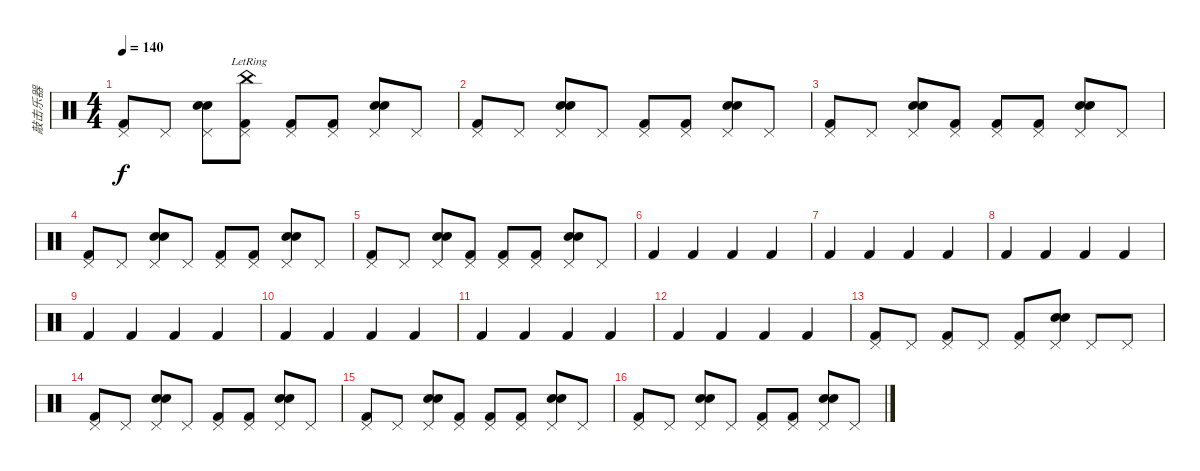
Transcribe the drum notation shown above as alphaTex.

\track ("敲击乐器" "敲击乐器") {instrument percussion}
\staff {score}
\articulation defaults
\ts (4 4)
\tempo 140
\clef neutral
\ks c
("Kick (hit) 2" "Pedal Hi-Hat (hit)").8{dy f} "Pedal Hi-Hat (hit)".8 ("Snare (hit) 2" "Electric Snare (hit)" "Pedal Hi-Hat (hit)").8 ("Kick (hit) 2" "China (hit)"{lr} "Pedal Hi-Hat (hit)").8 ("Kick (hit) 2" "Pedal Hi-Hat (hit)").8 ("Kick (hit) 2" "Pedal Hi-Hat (hit)").8 ("Snare (hit) 2" "Electric Snare (hit)" "Pedal Hi-Hat (hit)").8 "Pedal Hi-Hat (hit)".8 |
("Kick (hit) 2" "Pedal Hi-Hat (hit)").8 "Pedal Hi-Hat (hit)".8 ("Snare (hit) 2" "Electric Snare (hit)" "Pedal Hi-Hat (hit)").8 "Pedal Hi-Hat (hit)".8 ("Kick (hit) 2" "Pedal Hi-Hat (hit)").8 ("Kick (hit) 2" "Pedal Hi-Hat (hit)").8 ("Snare (hit) 2" "Electric Snare (hit)" "Pedal Hi-Hat (hit)").8 "Pedal Hi-Hat (hit)".8 |
("Kick (hit) 2" "Pedal Hi-Hat (hit)").8 "Pedal Hi-Hat (hit)".8 ("Snare (hit) 2" "Electric Snare (hit)" "Pedal Hi-Hat (hit)").8 ("Kick (hit) 2" "Pedal Hi-Hat (hit)").8 ("Kick (hit) 2" "Pedal Hi-Hat (hit)").8 ("Kick (hit) 2" "Pedal Hi-Hat (hit)").8 ("Snare (hit) 2" "Electric Snare (hit)" "Pedal Hi-Hat (hit)").8 "Pedal Hi-Hat (hit)".8 |
("Kick (hit) 2" "Pedal Hi-Hat (hit)").8 "Pedal Hi-Hat (hit)".8 ("Snare (hit) 2" "Electric Snare (hit)" "Pedal Hi-Hat (hit)").8 "Pedal Hi-Hat (hit)".8 ("Kick (hit) 2" "Pedal Hi-Hat (hit)").8 ("Kick (hit) 2" "Pedal Hi-Hat (hit)").8 ("Snare (hit) 2" "Electric Snare (hit)" "Pedal Hi-Hat (hit)").8 "Pedal Hi-Hat (hit)".8 |
("Kick (hit) 2" "Pedal Hi-Hat (hit)").8 "Pedal Hi-Hat (hit)".8 ("Snare (hit) 2" "Electric Snare (hit)" "Pedal Hi-Hat (hit)").8 ("Kick (hit) 2" "Pedal Hi-Hat (hit)").8 ("Kick (hit) 2" "Pedal Hi-Hat (hit)").8 ("Kick (hit) 2" "Pedal Hi-Hat (hit)").8 ("Snare (hit) 2" "Electric Snare (hit)" "Pedal Hi-Hat (hit)").8 "Pedal Hi-Hat (hit)".8 |
"Kick (hit) 2".4 "Kick (hit) 2".4 "Kick (hit) 2".4 "Kick (hit) 2".4 |
"Kick (hit) 2".4 "Kick (hit) 2".4 "Kick (hit) 2".4 "Kick (hit) 2".4 |
"Kick (hit) 2".4 "Kick (hit) 2".4 "Kick (hit) 2".4 "Kick (hit) 2".4 |
"Kick (hit) 2".4 "Kick (hit) 2".4 "Kick (hit) 2".4 "Kick (hit) 2".4 |
"Kick (hit) 2".4 "Kick (hit) 2".4 "Kick (hit) 2".4 "Kick (hit) 2".4 |
"Kick (hit) 2".4 "Kick (hit) 2".4 "Kick (hit) 2".4 "Kick (hit) 2".4 |
"Kick (hit) 2".4 "Kick (hit) 2".4 "Kick (hit) 2".4 "Kick (hit) 2".4 |
("Kick (hit) 2" "Pedal Hi-Hat (hit)").8 "Pedal Hi-Hat (hit)".8 ("Kick (hit) 2" "Pedal Hi-Hat (hit)").8 "Pedal Hi-Hat (hit)".8 ("Kick (hit) 2" "Pedal Hi-Hat (hit)").8 ("Snare (hit) 2" "Electric Snare (hit)" "Pedal Hi-Hat (hit)").8 "Pedal Hi-Hat (hit)".8 "Pedal Hi-Hat (hit)".8 |
("Kick (hit) 2" "Pedal Hi-Hat (hit)").8 "Pedal Hi-Hat (hit)".8 ("Snare (hit) 2" "Electric Snare (hit)" "Pedal Hi-Hat (hit)").8 "Pedal Hi-Hat (hit)".8 ("Kick (hit) 2" "Pedal Hi-Hat (hit)").8 ("Kick (hit) 2" "Pedal Hi-Hat (hit)").8 ("Snare (hit) 2" "Electric Snare (hit)" "Pedal Hi-Hat (hit)").8 "Pedal Hi-Hat (hit)".8 |
("Kick (hit) 2" "Pedal Hi-Hat (hit)").8 "Pedal Hi-Hat (hit)".8 ("Snare (hit) 2" "Electric Snare (hit)" "Pedal Hi-Hat (hit)").8 ("Kick (hit) 2" "Pedal Hi-Hat (hit)").8 ("Kick (hit) 2" "Pedal Hi-Hat (hit)").8 ("Kick (hit) 2" "Pedal Hi-Hat (hit)").8 ("Snare (hit) 2" "Electric Snare (hit)" "Pedal Hi-Hat (hit)").8 "Pedal Hi-Hat (hit)".8 |
("Kick (hit) 2" "Pedal Hi-Hat (hit)").8 "Pedal Hi-Hat (hit)".8 ("Snare (hit) 2" "Electric Snare (hit)" "Pedal Hi-Hat (hit)").8 "Pedal Hi-Hat (hit)".8 ("Kick (hit) 2" "Pedal Hi-Hat (hit)").8 ("Kick (hit) 2" "Pedal Hi-Hat (hit)").8 ("Snare (hit) 2" "Electric Snare (hit)" "Pedal Hi-Hat (hit)").8 "Pedal Hi-Hat (hit)".8
